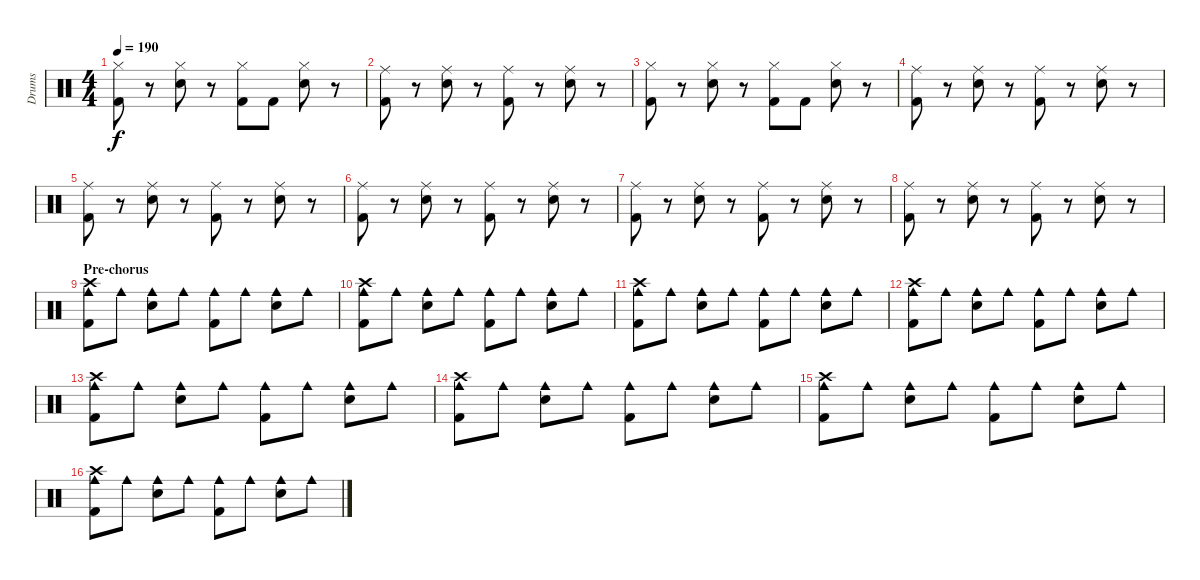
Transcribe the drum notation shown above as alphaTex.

\track ("Drums" "Drums") {instrument percussion}
\staff {score}
\articulation defaults
\ts (4 4)
\tempo 190
\clef neutral
\ks c
("Hi-Hat (closed)" "Kick (hit) 2").8{dy f} r.8 ("Hi-Hat (closed)" "Electric Snare (hit)").8 r.8 ("Hi-Hat (closed)" "Kick (hit) 2").8 "Kick (hit) 2".8 ("Hi-Hat (closed)" "Electric Snare (hit)").8 r.8 |
("Ride (middle)" "Kick (hit) 2").8 r.8 ("Ride (middle)" "Electric Snare (hit)").8 r.8 ("Ride (middle)" "Kick (hit) 2").8 r.8 ("Ride (middle)" "Electric Snare (hit)").8 r.8 |
("Hi-Hat (closed)" "Kick (hit) 2").8 r.8 ("Hi-Hat (closed)" "Electric Snare (hit)").8 r.8 ("Hi-Hat (closed)" "Kick (hit) 2").8 "Kick (hit) 2".8 ("Hi-Hat (closed)" "Electric Snare (hit)").8 r.8 |
("Ride (middle)" "Kick (hit) 2").8 r.8 ("Ride (middle)" "Electric Snare (hit)").8 r.8 ("Ride (middle)" "Kick (hit) 2").8 r.8 ("Ride (middle)" "Electric Snare (hit)").8 r.8 |
("Ride (middle)" "Kick (hit) 2").8 r.8 ("Ride (middle)" "Electric Snare (hit)").8 r.8 ("Ride (middle)" "Kick (hit) 2").8 r.8 ("Ride (middle)" "Electric Snare (hit)").8 r.8 |
("Ride (middle)" "Kick (hit) 2").8 r.8 ("Ride (middle)" "Electric Snare (hit)").8 r.8 ("Ride (middle)" "Kick (hit) 2").8 r.8 ("Ride (middle)" "Electric Snare (hit)").8 r.8 |
("Ride (middle)" "Kick (hit) 2").8 r.8 ("Ride (middle)" "Electric Snare (hit)").8 r.8 ("Ride (middle)" "Kick (hit) 2").8 r.8 ("Ride (middle)" "Electric Snare (hit)").8 r.8 |
("Ride (middle)" "Kick (hit) 2").8 r.8 ("Ride (middle)" "Electric Snare (hit)").8 r.8 ("Ride (middle)" "Kick (hit) 2").8 r.8 ("Ride (middle)" "Electric Snare (hit)").8 r.8 |
\section ("" "Pre-chorus")
("Crash high (hit)" "Cowbell medium (hit)" "Kick (hit) 2").8 "Cowbell medium (hit)".8 ("Cowbell medium (hit)" "Electric Snare (hit)").8 "Cowbell medium (hit)".8 ("Cowbell medium (hit)" "Kick (hit) 2").8 "Cowbell medium (hit)".8 ("Cowbell medium (hit)" "Electric Snare (hit)").8 "Cowbell medium (hit)".8 |
("Crash high (hit)" "Cowbell medium (hit)" "Kick (hit) 2").8 "Cowbell medium (hit)".8 ("Cowbell medium (hit)" "Electric Snare (hit)").8 "Cowbell medium (hit)".8 ("Cowbell medium (hit)" "Kick (hit) 2").8 "Cowbell medium (hit)".8 ("Cowbell medium (hit)" "Electric Snare (hit)").8 "Cowbell medium (hit)".8 |
("Crash high (hit)" "Cowbell medium (hit)" "Kick (hit) 2").8 "Cowbell medium (hit)".8 ("Cowbell medium (hit)" "Electric Snare (hit)").8 "Cowbell medium (hit)".8 ("Cowbell medium (hit)" "Kick (hit) 2").8 "Cowbell medium (hit)".8 ("Cowbell medium (hit)" "Electric Snare (hit)").8 "Cowbell medium (hit)".8 |
("Crash high (hit)" "Cowbell medium (hit)" "Kick (hit) 2").8 "Cowbell medium (hit)".8 ("Cowbell medium (hit)" "Electric Snare (hit)").8 "Cowbell medium (hit)".8 ("Cowbell medium (hit)" "Kick (hit) 2").8 "Cowbell medium (hit)".8 ("Cowbell medium (hit)" "Electric Snare (hit)").8 "Cowbell medium (hit)".8 |
("Crash high (hit)" "Cowbell medium (hit)" "Kick (hit) 2").8 "Cowbell medium (hit)".8 ("Cowbell medium (hit)" "Electric Snare (hit)").8 "Cowbell medium (hit)".8 ("Cowbell medium (hit)" "Kick (hit) 2").8 "Cowbell medium (hit)".8 ("Cowbell medium (hit)" "Electric Snare (hit)").8 "Cowbell medium (hit)".8 |
("Crash high (hit)" "Cowbell medium (hit)" "Kick (hit) 2").8 "Cowbell medium (hit)".8 ("Cowbell medium (hit)" "Electric Snare (hit)").8 "Cowbell medium (hit)".8 ("Cowbell medium (hit)" "Kick (hit) 2").8 "Cowbell medium (hit)".8 ("Cowbell medium (hit)" "Electric Snare (hit)").8 "Cowbell medium (hit)".8 |
("Crash high (hit)" "Cowbell medium (hit)" "Kick (hit) 2").8 "Cowbell medium (hit)".8 ("Cowbell medium (hit)" "Electric Snare (hit)").8 "Cowbell medium (hit)".8 ("Cowbell medium (hit)" "Kick (hit) 2").8 "Cowbell medium (hit)".8 ("Cowbell medium (hit)" "Electric Snare (hit)").8 "Cowbell medium (hit)".8 |
("Crash high (hit)" "Cowbell medium (hit)" "Kick (hit) 2").8 "Cowbell medium (hit)".8 ("Cowbell medium (hit)" "Electric Snare (hit)").8 "Cowbell medium (hit)".8 ("Cowbell medium (hit)" "Kick (hit) 2").8 "Cowbell medium (hit)".8 ("Cowbell medium (hit)" "Electric Snare (hit)").8 "Cowbell medium (hit)".8
